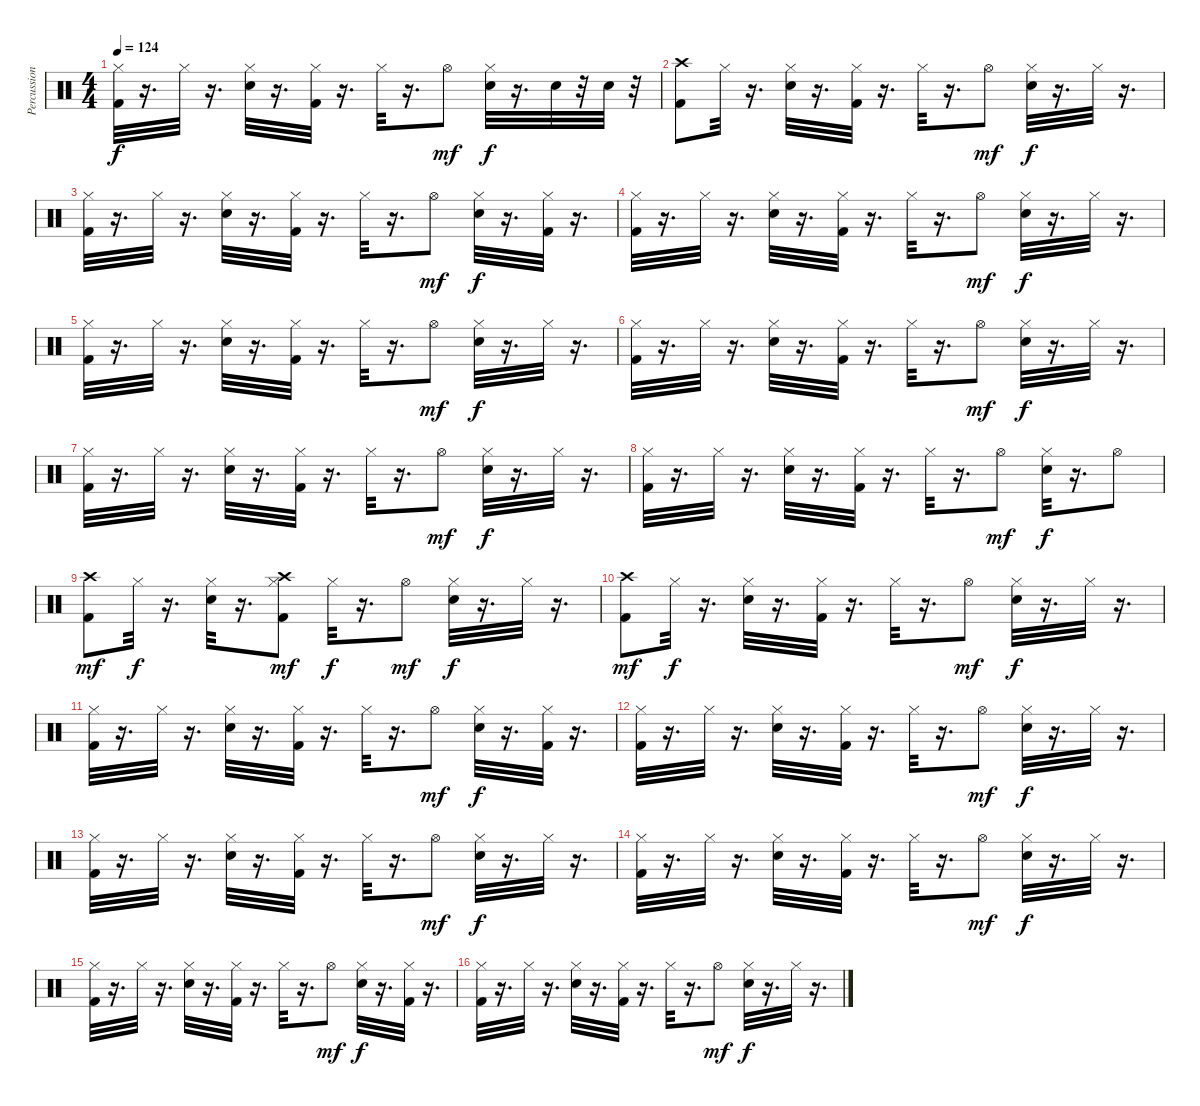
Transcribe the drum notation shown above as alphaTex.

\track ("Percussions" "Percussion") {instrument percussion}
\staff {score}
\articulation defaults
\ts (4 4)
\tempo 124
\clef neutral
\ks c
("Kick (hit) 2" "Hi-Hat (closed)").32{dy f} r.16{d} "Hi-Hat (closed)".32 r.16{d} ("Snare (hit) 2" "Hi-Hat (closed)").32 r.16{d} ("Kick (hit) 2" "Hi-Hat (closed)").32 r.16{d} "Hi-Hat (closed)".32 r.16{d} "Hi-Hat (open)".8{dy mf} ("Snare (hit) 2" "Hi-Hat (closed)").32{dy f} r.16{d} "Snare (hit) 2".32 r.32 "Snare (hit) 2".32 r.32 |
("Kick (hit) 2" "Crash high (hit)").8 "Hi-Hat (closed)".32 r.16{d} ("Snare (hit) 2" "Hi-Hat (closed)").32 r.16{d} ("Kick (hit) 2" "Hi-Hat (closed)").32 r.16{d} "Hi-Hat (closed)".32 r.16{d} "Hi-Hat (open)".8{dy mf} ("Snare (hit) 2" "Hi-Hat (closed)").32{dy f} r.16{d} "Hi-Hat (closed)".32 r.16{d} |
("Kick (hit) 2" "Hi-Hat (closed)").32 r.16{d} "Hi-Hat (closed)".32 r.16{d} ("Snare (hit) 2" "Hi-Hat (closed)").32 r.16{d} ("Kick (hit) 2" "Hi-Hat (closed)").32 r.16{d} "Hi-Hat (closed)".32 r.16{d} "Hi-Hat (open)".8{dy mf} ("Snare (hit) 2" "Hi-Hat (closed)").32{dy f} r.16{d} ("Kick (hit) 2" "Hi-Hat (closed)").32 r.16{d} |
("Kick (hit) 2" "Hi-Hat (closed)").32 r.16{d} "Hi-Hat (closed)".32 r.16{d} ("Snare (hit) 2" "Hi-Hat (closed)").32 r.16{d} ("Kick (hit) 2" "Hi-Hat (closed)").32 r.16{d} "Hi-Hat (closed)".32 r.16{d} "Hi-Hat (open)".8{dy mf} ("Snare (hit) 2" "Hi-Hat (closed)").32{dy f} r.16{d} "Hi-Hat (closed)".32 r.16{d} |
("Kick (hit) 2" "Hi-Hat (closed)").32 r.16{d} "Hi-Hat (closed)".32 r.16{d} ("Snare (hit) 2" "Hi-Hat (closed)").32 r.16{d} ("Kick (hit) 2" "Hi-Hat (closed)").32 r.16{d} "Hi-Hat (closed)".32 r.16{d} "Hi-Hat (open)".8{dy mf} ("Snare (hit) 2" "Hi-Hat (closed)").32{dy f} r.16{d} "Hi-Hat (closed)".32 r.16{d} |
("Kick (hit) 2" "Hi-Hat (closed)").32 r.16{d} "Hi-Hat (closed)".32 r.16{d} ("Snare (hit) 2" "Hi-Hat (closed)").32 r.16{d} ("Kick (hit) 2" "Hi-Hat (closed)").32 r.16{d} "Hi-Hat (closed)".32 r.16{d} "Hi-Hat (open)".8{dy mf} ("Snare (hit) 2" "Hi-Hat (closed)").32{dy f} r.16{d} "Hi-Hat (closed)".32 r.16{d} |
("Kick (hit) 2" "Hi-Hat (closed)").32 r.16{d} "Hi-Hat (closed)".32 r.16{d} ("Snare (hit) 2" "Hi-Hat (closed)").32 r.16{d} ("Kick (hit) 2" "Hi-Hat (closed)").32 r.16{d} "Hi-Hat (closed)".32 r.16{d} "Hi-Hat (open)".8{dy mf} ("Snare (hit) 2" "Hi-Hat (closed)").32{dy f} r.16{d} "Hi-Hat (closed)".32 r.16{d} |
("Kick (hit) 2" "Hi-Hat (closed)").32 r.16{d} "Hi-Hat (closed)".32 r.16{d} ("Snare (hit) 2" "Hi-Hat (closed)").32 r.16{d} ("Kick (hit) 2" "Hi-Hat (closed)").32 r.16{d} "Hi-Hat (closed)".32 r.16{d} "Hi-Hat (open)".8{dy mf} ("Snare (hit) 2" "Hi-Hat (closed)").32{dy f} r.16{d} "Hi-Hat (open)".8 |
("Kick (hit) 2" "Crash high (hit)").8{dy mf} "Hi-Hat (closed)".32{dy f} r.16{d} ("Snare (hit) 2" "Hi-Hat (closed)").32 r.16{d} ("Kick (hit) 2" "Hi-Hat (closed)" "Crash high (hit)").8{dy mf} "Hi-Hat (closed)".32{dy f} r.16{d} "Hi-Hat (open)".8{dy mf} ("Snare (hit) 2" "Hi-Hat (closed)").32{dy f} r.16{d} "Hi-Hat (closed)".32 r.16{d} |
("Kick (hit) 2" "Crash high (hit)").8{dy mf} "Hi-Hat (closed)".32{dy f} r.16{d} ("Snare (hit) 2" "Hi-Hat (closed)").32 r.16{d} ("Kick (hit) 2" "Hi-Hat (closed)").32 r.16{d} "Hi-Hat (closed)".32 r.16{d} "Hi-Hat (open)".8{dy mf} ("Snare (hit) 2" "Hi-Hat (closed)").32{dy f} r.16{d} "Hi-Hat (closed)".32 r.16{d} |
("Kick (hit) 2" "Hi-Hat (closed)").32 r.16{d} "Hi-Hat (closed)".32 r.16{d} ("Snare (hit) 2" "Hi-Hat (closed)").32 r.16{d} ("Kick (hit) 2" "Hi-Hat (closed)").32 r.16{d} "Hi-Hat (closed)".32 r.16{d} "Hi-Hat (open)".8{dy mf} ("Snare (hit) 2" "Hi-Hat (closed)").32{dy f} r.16{d} ("Kick (hit) 2" "Hi-Hat (closed)").32 r.16{d} |
("Kick (hit) 2" "Hi-Hat (closed)").32 r.16{d} "Hi-Hat (closed)".32 r.16{d} ("Snare (hit) 2" "Hi-Hat (closed)").32 r.16{d} ("Kick (hit) 2" "Hi-Hat (closed)").32 r.16{d} "Hi-Hat (closed)".32 r.16{d} "Hi-Hat (open)".8{dy mf} ("Snare (hit) 2" "Hi-Hat (closed)").32{dy f} r.16{d} "Hi-Hat (closed)".32 r.16{d} |
("Kick (hit) 2" "Hi-Hat (closed)").32 r.16{d} "Hi-Hat (closed)".32 r.16{d} ("Snare (hit) 2" "Hi-Hat (closed)").32 r.16{d} ("Kick (hit) 2" "Hi-Hat (closed)").32 r.16{d} "Hi-Hat (closed)".32 r.16{d} "Hi-Hat (open)".8{dy mf} ("Snare (hit) 2" "Hi-Hat (closed)").32{dy f} r.16{d} "Hi-Hat (closed)".32 r.16{d} |
("Kick (hit) 2" "Hi-Hat (closed)").32 r.16{d} "Hi-Hat (closed)".32 r.16{d} ("Snare (hit) 2" "Hi-Hat (closed)").32 r.16{d} ("Kick (hit) 2" "Hi-Hat (closed)").32 r.16{d} "Hi-Hat (closed)".32 r.16{d} "Hi-Hat (open)".8{dy mf} ("Snare (hit) 2" "Hi-Hat (closed)").32{dy f} r.16{d} "Hi-Hat (closed)".32 r.16{d} |
("Kick (hit) 2" "Hi-Hat (closed)").32 r.16{d} "Hi-Hat (closed)".32 r.16{d} ("Snare (hit) 2" "Hi-Hat (closed)").32 r.16{d} ("Kick (hit) 2" "Hi-Hat (closed)").32 r.16{d} "Hi-Hat (closed)".32 r.16{d} "Hi-Hat (open)".8{dy mf} ("Snare (hit) 2" "Hi-Hat (closed)").32{dy f} r.16{d} ("Kick (hit) 2" "Hi-Hat (closed)").32 r.16{d} |
("Kick (hit) 2" "Hi-Hat (closed)").32 r.16{d} "Hi-Hat (closed)".32 r.16{d} ("Snare (hit) 2" "Hi-Hat (closed)").32 r.16{d} ("Kick (hit) 2" "Hi-Hat (closed)").32 r.16{d} "Hi-Hat (closed)".32 r.16{d} "Hi-Hat (open)".8{dy mf} ("Snare (hit) 2" "Hi-Hat (closed)").32{dy f} r.16{d} "Hi-Hat (closed)".32 r.16{d}
